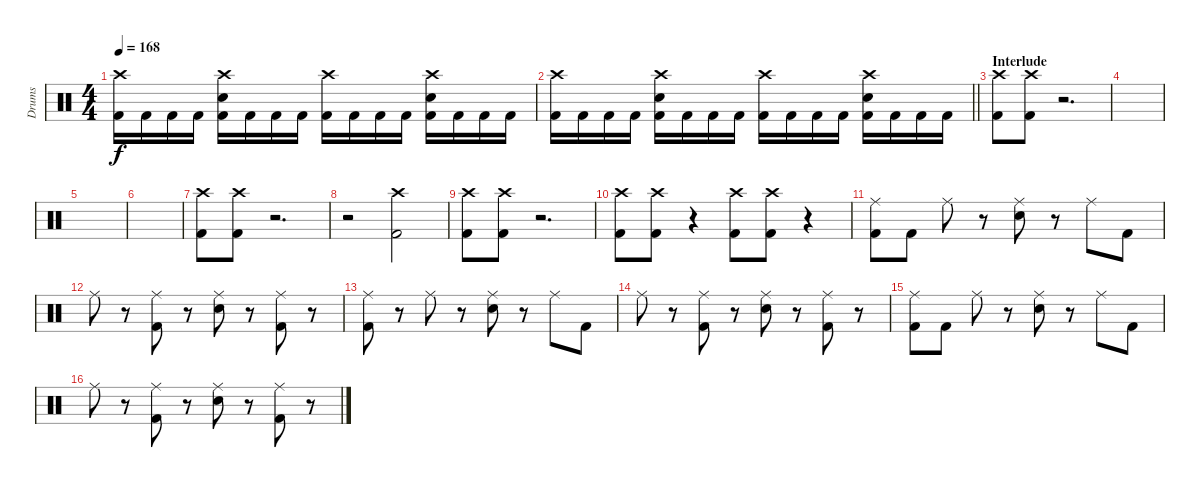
\track ("Drums" "Drums") {instrument percussion}
\staff {score}
\articulation defaults
\ts (4 4)
\tempo 168
\clef neutral
\ks c
("Crash high (hit)" "Kick (hit) 2").16{dy f} "Kick (hit) 2".16 "Kick (hit) 2".16 "Kick (hit) 2".16 ("Crash high (hit)" "Snare (hit) 2" "Kick (hit) 2").16 "Kick (hit) 2".16 "Kick (hit) 2".16 "Kick (hit) 2".16 ("Crash high (hit)" "Kick (hit) 2").16 "Kick (hit) 2".16 "Kick (hit) 2".16 "Kick (hit) 2".16 ("Crash high (hit)" "Snare (hit) 2" "Kick (hit) 2").16 "Kick (hit) 2".16 "Kick (hit) 2".16 "Kick (hit) 2".16 |
\barLineRight lightlight
("Crash high (hit)" "Kick (hit) 2").16 "Kick (hit) 2".16 "Kick (hit) 2".16 "Kick (hit) 2".16 ("Crash high (hit)" "Snare (hit) 2" "Kick (hit) 2").16 "Kick (hit) 2".16 "Kick (hit) 2".16 "Kick (hit) 2".16 ("Crash high (hit)" "Kick (hit) 2").16 "Kick (hit) 2".16 "Kick (hit) 2".16 "Kick (hit) 2".16 ("Crash high (hit)" "Snare (hit) 2" "Kick (hit) 2").16 "Kick (hit) 2".16 "Kick (hit) 2".16 "Kick (hit) 2".16 |
\section ("" "Interlude")
("Crash high (hit)" "Kick (hit) 2").8 ("Crash high (hit)" "Kick (hit) 2").8 r.2{d} |
|
|
|
("Crash high (hit)" "Kick (hit) 2").8 ("Crash high (hit)" "Kick (hit) 2").8 r.2{d} |
r.2 ("Crash high (hit)" "Kick (hit) 2").2 |
("Crash high (hit)" "Kick (hit) 2").8 ("Crash high (hit)" "Kick (hit) 2").8 r.2{d} |
("Crash high (hit)" "Kick (hit) 2").8 ("Crash high (hit)" "Kick (hit) 2").8 r.4 ("Crash high (hit)" "Kick (hit) 2").8 ("Crash high (hit)" "Kick (hit) 2").8 r.4 |
("Ride (middle)" "Kick (hit) 2").8 "Kick (hit) 2".8 "Ride (middle)".8 r.8 ("Ride (middle)" "Snare (hit) 2").8 r.8 "Ride (middle)".8 "Kick (hit) 2".8 |
"Ride (middle)".8 r.8 ("Ride (middle)" "Kick (hit) 2").8 r.8 ("Ride (middle)" "Snare (hit) 2").8 r.8 ("Ride (middle)" "Kick (hit) 2").8 r.8 |
("Ride (middle)" "Kick (hit) 2").8 r.8 "Ride (middle)".8 r.8 ("Ride (middle)" "Snare (hit) 2").8 r.8 "Ride (middle)".8 "Kick (hit) 2".8 |
"Ride (middle)".8 r.8 ("Ride (middle)" "Kick (hit) 2").8 r.8 ("Ride (middle)" "Snare (hit) 2").8 r.8 ("Ride (middle)" "Kick (hit) 2").8 r.8 |
("Ride (middle)" "Kick (hit) 2").8 "Kick (hit) 2".8 "Ride (middle)".8 r.8 ("Ride (middle)" "Snare (hit) 2").8 r.8 "Ride (middle)".8 "Kick (hit) 2".8 |
"Ride (middle)".8 r.8 ("Ride (middle)" "Kick (hit) 2").8 r.8 ("Ride (middle)" "Snare (hit) 2").8 r.8 ("Ride (middle)" "Kick (hit) 2").8 r.8
